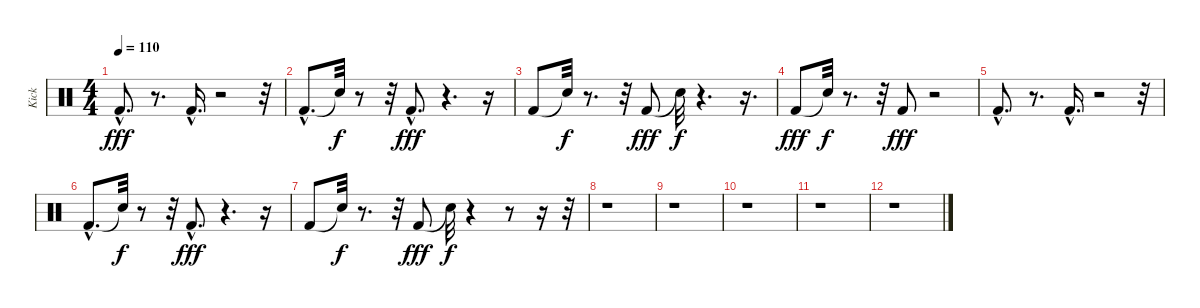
\track ("Kick" "Kick") {instrument percussion}
\staff {score}
\articulation defaults
\ts (4 4)
\tempo 110
\clef neutral
\ks c "Kick (hit) 2"{hac}.8{d dy fff}
r.8{d} "Kick (hit) 2"{hac}.16{d} r.2 r.32 |
"Kick (hit) 2"{hac}.8{d} "Snare (hit)"{t}.32{dy f} r.8 r.32 "Kick (hit) 2"{hac}.8{d dy fff} r.4{d} r.16 |
"Kick (hit) 2".8 "Snare (hit)"{t}.32{dy f} r.8{d} r.32 "Kick (hit) 2".8{dy fff} "Snare (hit)"{t}.32{dy f} r.4{d} r.16{d} |
"Kick (hit) 2".8{dy fff} "Snare (hit)"{t}.32{dy f} r.8{d} r.32 "Kick (hit) 2".8{dy fff} r.2 |
"Kick (hit) 2"{hac}.8{d} r.8{d} "Kick (hit) 2"{hac}.16{d} r.2 r.32 |
"Kick (hit) 2"{hac}.8{d} "Snare (hit)"{t}.32{dy f} r.8 r.32 "Kick (hit) 2"{hac}.8{d dy fff} r.4{d} r.16 |
"Kick (hit) 2".8 "Snare (hit)"{t}.32{dy f} r.8{d} r.32 "Kick (hit) 2".8{dy fff} "Snare (hit)"{t}.32{dy f} r.4 r.8 r.16 r.32 |
r.1 |
r.1 |
r.1 |
r.1 |
r.1
